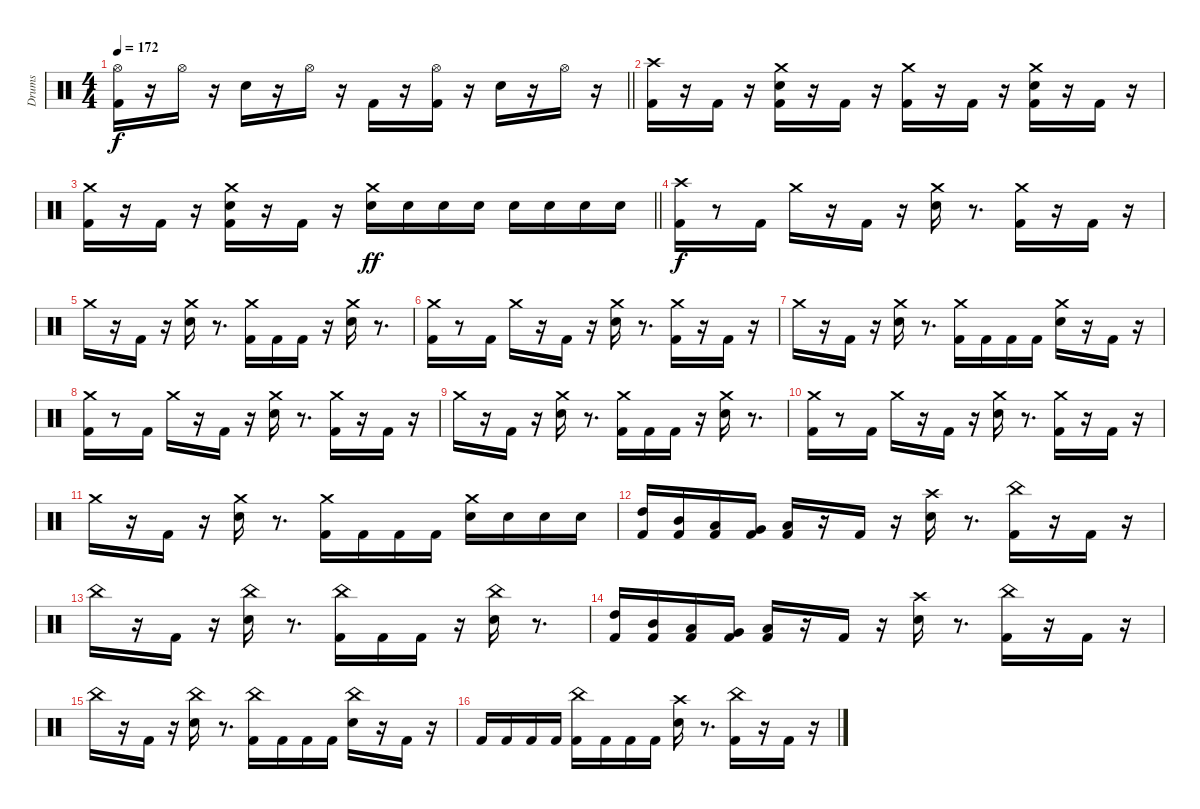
\track ("Drums" "Drums") {instrument percussion}
\staff {score}
\articulation defaults
\ts (4 4)
\tempo 172
\clef neutral
\barLineRight lightlight
\ks c
("Kick (hit) 2" "Hi-Hat (open)").16{dy f} r.16 "Hi-Hat (open)".16 r.16 "Snare (hit) 2".16 r.16 "Hi-Hat (open)".16 r.16 "Kick (hit) 2".16 r.16 ("Kick (hit) 2" "Hi-Hat (open)").16 r.16 "Snare (hit) 2".16 r.16 "Hi-Hat (open)".16 r.16 |
("Kick (hit) 2" "Crash high (hit)").16 r.16 "Kick (hit) 2".16 r.16 ("Kick (hit) 2" "Snare (hit) 2" "Crash medium (hit)").16 r.16 "Kick (hit) 2".16 r.16 ("Kick (hit) 2" "Crash medium (hit)").16 r.16 "Kick (hit) 2".16 r.16 ("Kick (hit) 2" "Snare (hit) 2" "Crash medium (hit)").16 r.16 "Kick (hit) 2".16 r.16 |
\barLineRight lightlight
("Kick (hit) 2" "Crash medium (hit)").16 r.16 "Kick (hit) 2".16 r.16 ("Kick (hit) 2" "Snare (hit) 2" "Crash medium (hit)").16 r.16 "Kick (hit) 2".16 r.16 ("Snare (hit) 2" "Crash medium (hit)").16{dy ff} "Snare (hit) 2".16 "Snare (hit) 2".16 "Snare (hit) 2".16 "Snare (hit) 2".16 "Snare (hit) 2".16 "Snare (hit) 2".16 "Snare (hit) 2".16 |
\section ("" " ")
("Kick (hit) 2" "Crash high (hit)").16{dy f} r.8 "Kick (hit) 2".16 "Crash medium (hit)".16 r.16 "Kick (hit) 2".16 r.16 ("Snare (hit) 2" "Crash medium (hit)").16 r.8{d} ("Kick (hit) 2" "Crash medium (hit)").16 r.16 "Kick (hit) 2".16 r.16 |
"Crash medium (hit)".16 r.16 "Kick (hit) 2".16 r.16 ("Snare (hit) 2" "Crash medium (hit)").16 r.8{d} ("Kick (hit) 2" "Crash medium (hit)").16 "Kick (hit) 2".16 "Kick (hit) 2".16 r.16 ("Snare (hit) 2" "Crash medium (hit)").16 r.8{d} |
("Kick (hit) 2" "Crash medium (hit)").16 r.8 "Kick (hit) 2".16 "Crash medium (hit)".16 r.16 "Kick (hit) 2".16 r.16 ("Snare (hit) 2" "Crash medium (hit)").16 r.8{d} ("Kick (hit) 2" "Crash medium (hit)").16 r.16 "Kick (hit) 2".16 r.16 |
"Crash medium (hit)".16 r.16 "Kick (hit) 2".16 r.16 ("Snare (hit) 2" "Crash medium (hit)").16 r.8{d} ("Kick (hit) 2" "Crash medium (hit)").16 "Kick (hit) 2".16 "Kick (hit) 2".16 "Kick (hit) 2".16 ("Snare (hit) 2" "Crash medium (hit)").16 r.16 "Kick (hit) 2".16 r.16 |
("Kick (hit) 2" "Crash medium (hit)").16 r.8 "Kick (hit) 2".16 "Crash medium (hit)".16 r.16 "Kick (hit) 2".16 r.16 ("Snare (hit) 2" "Crash medium (hit)").16 r.8{d} ("Kick (hit) 2" "Crash medium (hit)").16 r.16 "Kick (hit) 2".16 r.16 |
"Crash medium (hit)".16 r.16 "Kick (hit) 2".16 r.16 ("Snare (hit) 2" "Crash medium (hit)").16 r.8{d} ("Kick (hit) 2" "Crash medium (hit)").16 "Kick (hit) 2".16 "Kick (hit) 2".16 r.16 ("Snare (hit) 2" "Crash medium (hit)").16 r.8{d} |
("Kick (hit) 2" "Crash medium (hit)").16 r.8 "Kick (hit) 2".16 "Crash medium (hit)".16 r.16 "Kick (hit) 2".16 r.16 ("Snare (hit) 2" "Crash medium (hit)").16 r.8{d} ("Kick (hit) 2" "Crash medium (hit)").16 r.16 "Kick (hit) 2".16 r.16 |
"Crash medium (hit)".16 r.16 "Kick (hit) 2".16 r.16 ("Snare (hit) 2" "Crash medium (hit)").16 r.8{d} ("Kick (hit) 2" "Crash medium (hit)").16 "Kick (hit) 2".16 "Kick (hit) 2".16 "Kick (hit) 2".16 ("Snare (hit) 2" "Crash medium (hit)").16 "Snare (hit) 2".16 "Snare (hit) 2".16 "Snare (hit) 2".16 |
("Kick (hit) 2" "High Tom (hit)").16 ("Kick (hit) 2" "Mid Tom (hit)").16 ("Kick (hit) 2" "Low Tom (hit)").16 ("Kick (hit) 2" "Very Low Tom (hit)").16 ("Kick (hit) 2" "Low Floor Tom (hit)").16 r.16 "Kick (hit) 2".16 r.16 ("Snare (hit) 2" "Crash high (hit)").16 r.8{d} ("Kick (hit) 2" "China (hit)").16 r.16 "Kick (hit) 2".16 r.16 |
"China (hit)".16 r.16 "Kick (hit) 2".16 r.16 ("Snare (hit) 2" "China (hit)").16 r.8{d} ("Kick (hit) 2" "China (hit)").16 "Kick (hit) 2".16 "Kick (hit) 2".16 r.16 ("Snare (hit) 2" "China (hit)").16 r.8{d} |
("Kick (hit) 2" "High Tom (hit)").16 ("Kick (hit) 2" "Mid Tom (hit)").16 ("Kick (hit) 2" "Low Tom (hit)").16 ("Kick (hit) 2" "Very Low Tom (hit)").16 ("Kick (hit) 2" "Low Floor Tom (hit)").16 r.16 "Kick (hit) 2".16 r.16 ("Snare (hit) 2" "Crash high (hit)").16 r.8{d} ("Kick (hit) 2" "China (hit)").16 r.16 "Kick (hit) 2".16 r.16 |
"China (hit)".16 r.16 "Kick (hit) 2".16 r.16 ("Snare (hit) 2" "China (hit)").16 r.8{d} ("Kick (hit) 2" "China (hit)").16 "Kick (hit) 2".16 "Kick (hit) 2".16 "Kick (hit) 2".16 ("Snare (hit) 2" "China (hit)").16 r.16 "Kick (hit) 2".16 r.16 |
"Kick (hit) 2".16 "Kick (hit) 2".16 "Kick (hit) 2".16 "Kick (hit) 2".16 ("Kick (hit) 2" "China (hit)").16 "Kick (hit) 2".16 "Kick (hit) 2".16 "Kick (hit) 2".16 ("Snare (hit) 2" "Crash high (hit)").16 r.8{d} ("Kick (hit) 2" "China (hit)").16 r.16 "Kick (hit) 2".16 r.16
